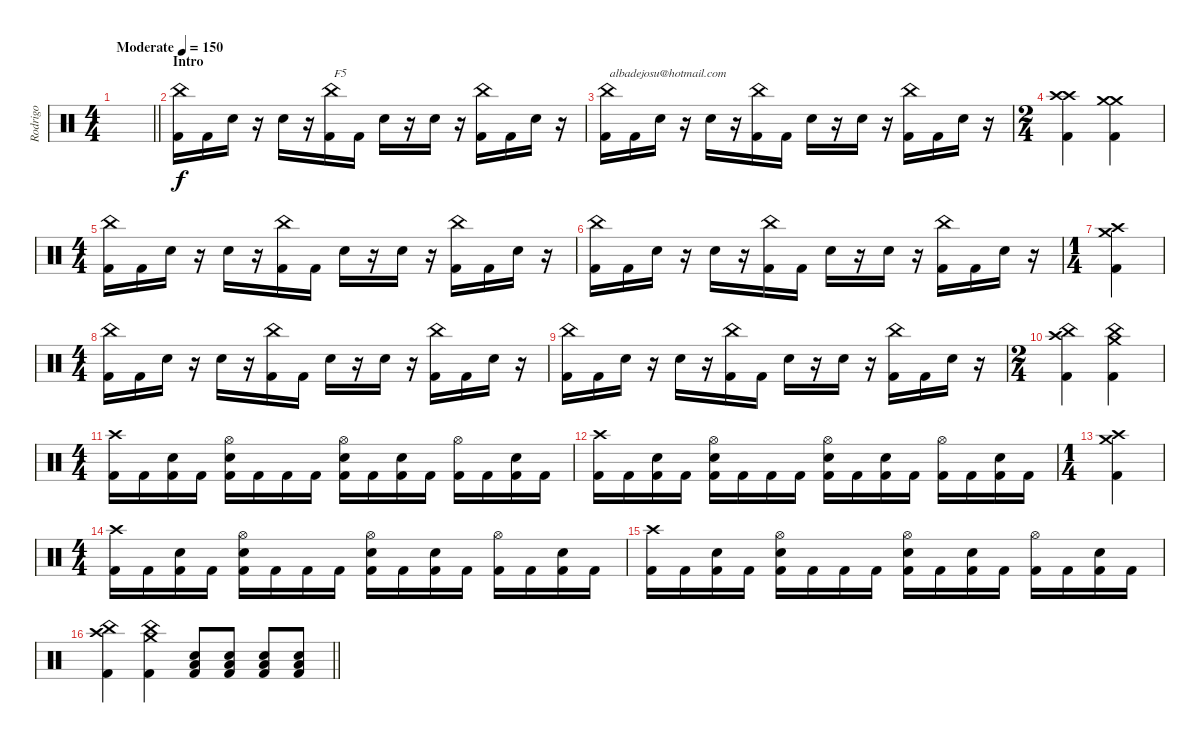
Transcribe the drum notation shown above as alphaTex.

\track ("Rodrigo" "Rodrigo") {instrument percussion}
\staff {score}
\articulation defaults
\ts (4 4)
\tempo (150 "Moderate")
\clef neutral
\barLineRight lightlight
\ks c
|
\section ("" "Intro")
("China (hit)" "Kick (hit) 2").16 "Kick (hit) 2".16 "Electric Snare (hit)".16 r.16 "Electric Snare (hit)".16 r.16 ("China (hit)" "Kick (hit) 2").16{txt "F5"} "Kick (hit) 2".16 "Electric Snare (hit)".16 r.16 "Electric Snare (hit)".16 r.16 ("China (hit)" "Kick (hit) 2").16 "Kick (hit) 2".16 "Electric Snare (hit)".16 r.16 |
("China (hit)" "Kick (hit) 2").16{txt "albadejosu@hotmail.com"} "Kick (hit) 2".16 "Electric Snare (hit)".16 r.16 "Electric Snare (hit)".16 r.16 ("China (hit)" "Kick (hit) 2").16 "Kick (hit) 2".16 "Electric Snare (hit)".16 r.16 "Electric Snare (hit)".16 r.16 ("China (hit)" "Kick (hit) 2").16 "Kick (hit) 2".16 "Electric Snare (hit)".16 r.16 |
\ts (2 4)
("Crash high (hit)" "Crash high (hit)" "Kick (hit) 2").4 ("Crash medium (hit)" "Crash medium (hit)" "Kick (hit) 2").4 |
\ts (4 4)
("China (hit)" "Kick (hit) 2").16 "Kick (hit) 2".16 "Electric Snare (hit)".16 r.16 "Electric Snare (hit)".16 r.16 ("China (hit)" "Kick (hit) 2").16 "Kick (hit) 2".16 "Electric Snare (hit)".16 r.16 "Electric Snare (hit)".16 r.16 ("China (hit)" "Kick (hit) 2").16 "Kick (hit) 2".16 "Electric Snare (hit)".16 r.16 |
("China (hit)" "Kick (hit) 2").16 "Kick (hit) 2".16 "Electric Snare (hit)".16 r.16 "Electric Snare (hit)".16 r.16 ("China (hit)" "Kick (hit) 2").16 "Kick (hit) 2".16 "Electric Snare (hit)".16 r.16 "Electric Snare (hit)".16 r.16 ("China (hit)" "Kick (hit) 2").16 "Kick (hit) 2".16 "Electric Snare (hit)".16 r.16 |
\ts (1 4)
("Crash medium (hit)" "Crash high (hit)" "Kick (hit) 2").4 |
\ts (4 4)
("China (hit)" "Kick (hit) 2").16 "Kick (hit) 2".16 "Electric Snare (hit)".16 r.16 "Electric Snare (hit)".16 r.16 ("China (hit)" "Kick (hit) 2").16 "Kick (hit) 2".16 "Electric Snare (hit)".16 r.16 "Electric Snare (hit)".16 r.16 ("China (hit)" "Kick (hit) 2").16 "Kick (hit) 2".16 "Electric Snare (hit)".16 r.16 |
("China (hit)" "Kick (hit) 2").16 "Kick (hit) 2".16 "Electric Snare (hit)".16 r.16 "Electric Snare (hit)".16 r.16 ("China (hit)" "Kick (hit) 2").16 "Kick (hit) 2".16 "Electric Snare (hit)".16 r.16 "Electric Snare (hit)".16 r.16 ("China (hit)" "Kick (hit) 2").16 "Kick (hit) 2".16 "Electric Snare (hit)".16 r.16 |
\ts (2 4)
("Crash high (hit)" "China (hit)" "Kick (hit) 2").4 ("Crash medium (hit)" "China (hit)" "Kick (hit) 2").4 |
\ts (4 4)
("Crash high (hit)" "Kick (hit) 2").16 "Kick (hit) 2".16 ("Electric Snare (hit)" "Kick (hit) 2").16 "Kick (hit) 2".16 ("Hi-Hat (open)" "Electric Snare (hit)" "Kick (hit) 2").16 "Kick (hit) 2".16 "Kick (hit) 2".16 "Kick (hit) 2".16 ("Hi-Hat (open)" "Electric Snare (hit)" "Kick (hit) 2").16 "Kick (hit) 2".16 ("Electric Snare (hit)" "Kick (hit) 2").16 "Kick (hit) 2".16 ("Hi-Hat (open)" "Kick (hit) 2").16 "Kick (hit) 2".16 ("Electric Snare (hit)" "Kick (hit) 2").16 "Kick (hit) 2".16 |
("Crash high (hit)" "Kick (hit) 2").16 "Kick (hit) 2".16 ("Electric Snare (hit)" "Kick (hit) 2").16 "Kick (hit) 2".16 ("Hi-Hat (open)" "Electric Snare (hit)" "Kick (hit) 2").16 "Kick (hit) 2".16 "Kick (hit) 2".16 "Kick (hit) 2".16 ("Hi-Hat (open)" "Electric Snare (hit)" "Kick (hit) 2").16 "Kick (hit) 2".16 ("Electric Snare (hit)" "Kick (hit) 2").16 "Kick (hit) 2".16 ("Hi-Hat (open)" "Kick (hit) 2").16 "Kick (hit) 2".16 ("Electric Snare (hit)" "Kick (hit) 2").16 "Kick (hit) 2".16 |
\ts (1 4)
("Crash medium (hit)" "Crash high (hit)" "Kick (hit) 2").4 |
\ts (4 4)
("Crash high (hit)" "Kick (hit) 2").16 "Kick (hit) 2".16 ("Electric Snare (hit)" "Kick (hit) 2").16 "Kick (hit) 2".16 ("Hi-Hat (open)" "Electric Snare (hit)" "Kick (hit) 2").16 "Kick (hit) 2".16 "Kick (hit) 2".16 "Kick (hit) 2".16 ("Hi-Hat (open)" "Electric Snare (hit)" "Kick (hit) 2").16 "Kick (hit) 2".16 ("Electric Snare (hit)" "Kick (hit) 2").16 "Kick (hit) 2".16 ("Hi-Hat (open)" "Kick (hit) 2").16 "Kick (hit) 2".16 ("Electric Snare (hit)" "Kick (hit) 2").16 "Kick (hit) 2".16 |
("Crash high (hit)" "Kick (hit) 2").16 "Kick (hit) 2".16 ("Electric Snare (hit)" "Kick (hit) 2").16 "Kick (hit) 2".16 ("Hi-Hat (open)" "Electric Snare (hit)" "Kick (hit) 2").16 "Kick (hit) 2".16 "Kick (hit) 2".16 "Kick (hit) 2".16 ("Hi-Hat (open)" "Electric Snare (hit)" "Kick (hit) 2").16 "Kick (hit) 2".16 ("Electric Snare (hit)" "Kick (hit) 2").16 "Kick (hit) 2".16 ("Hi-Hat (open)" "Kick (hit) 2").16 "Kick (hit) 2".16 ("Electric Snare (hit)" "Kick (hit) 2").16 "Kick (hit) 2".16 |
\barLineRight lightlight
("Crash high (hit)" "China (hit)" "Kick (hit) 2").4 ("Crash medium (hit)" "China (hit)" "Kick (hit) 2").4 ("Low Floor Tom (hit)" "Electric Snare (hit)" "Kick (hit) 2").8 ("Low Floor Tom (hit)" "Electric Snare (hit)" "Kick (hit) 2").8 ("Low Floor Tom (hit)" "Electric Snare (hit)" "Kick (hit) 2").8 ("Low Floor Tom (hit)" "Electric Snare (hit)" "Kick (hit) 2").8
